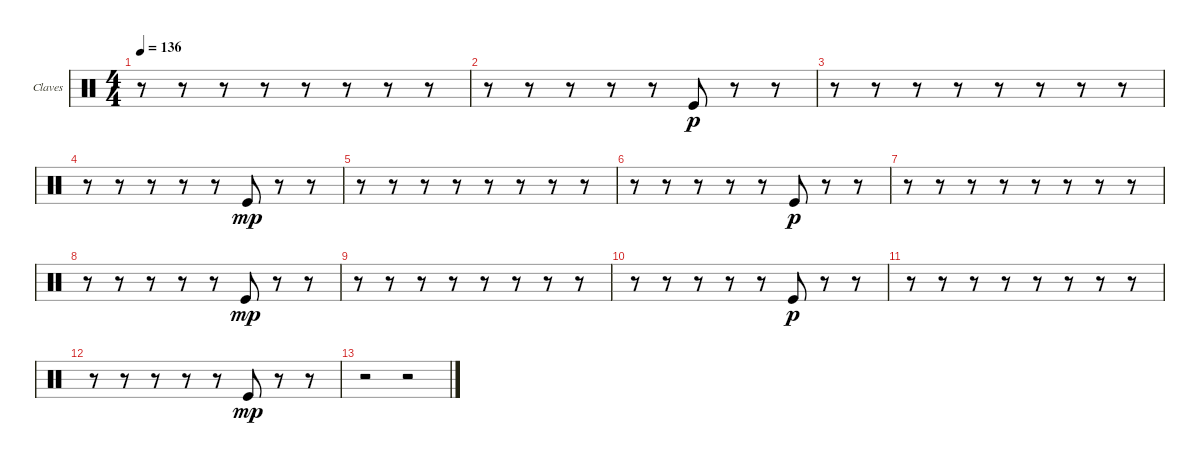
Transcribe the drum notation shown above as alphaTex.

\bracketExtendMode groupsimilarinstruments
\firstSystemTrackNameOrientation horizontal
\otherSystemsTrackNameOrientation horizontal
\track ("Claves" "Claves") {instrument percussion}
\staff {score}
\articulation defaults
\ts (4 4)
\tempo 136
\clef neutral
\ks c
r.8{dy mp} r.8 r.8 r.8 r.8 r.8 r.8 r.8 |
r.8 r.8 r.8 r.8 r.8 "Kick (hit)".8{dy p} r.8 r.8 |
r.8 r.8 r.8 r.8 r.8 r.8 r.8 r.8 |
r.8 r.8 r.8 r.8 r.8 "Kick (hit)".8{dy mp} r.8 r.8 |
r.8 r.8 r.8 r.8 r.8 r.8 r.8 r.8 |
r.8 r.8 r.8 r.8 r.8 "Kick (hit)".8{dy p} r.8 r.8 |
r.8 r.8 r.8 r.8 r.8 r.8 r.8 r.8 |
r.8 r.8 r.8 r.8 r.8 "Kick (hit)".8{dy mp} r.8 r.8 |
r.8 r.8 r.8 r.8 r.8 r.8 r.8 r.8 |
r.8 r.8 r.8 r.8 r.8 "Kick (hit)".8{dy p} r.8 r.8 |
r.8 r.8 r.8 r.8 r.8 r.8 r.8 r.8 |
r.8 r.8 r.8 r.8 r.8 "Kick (hit)".8{dy mp} r.8 r.8 |
r.2 r.2
